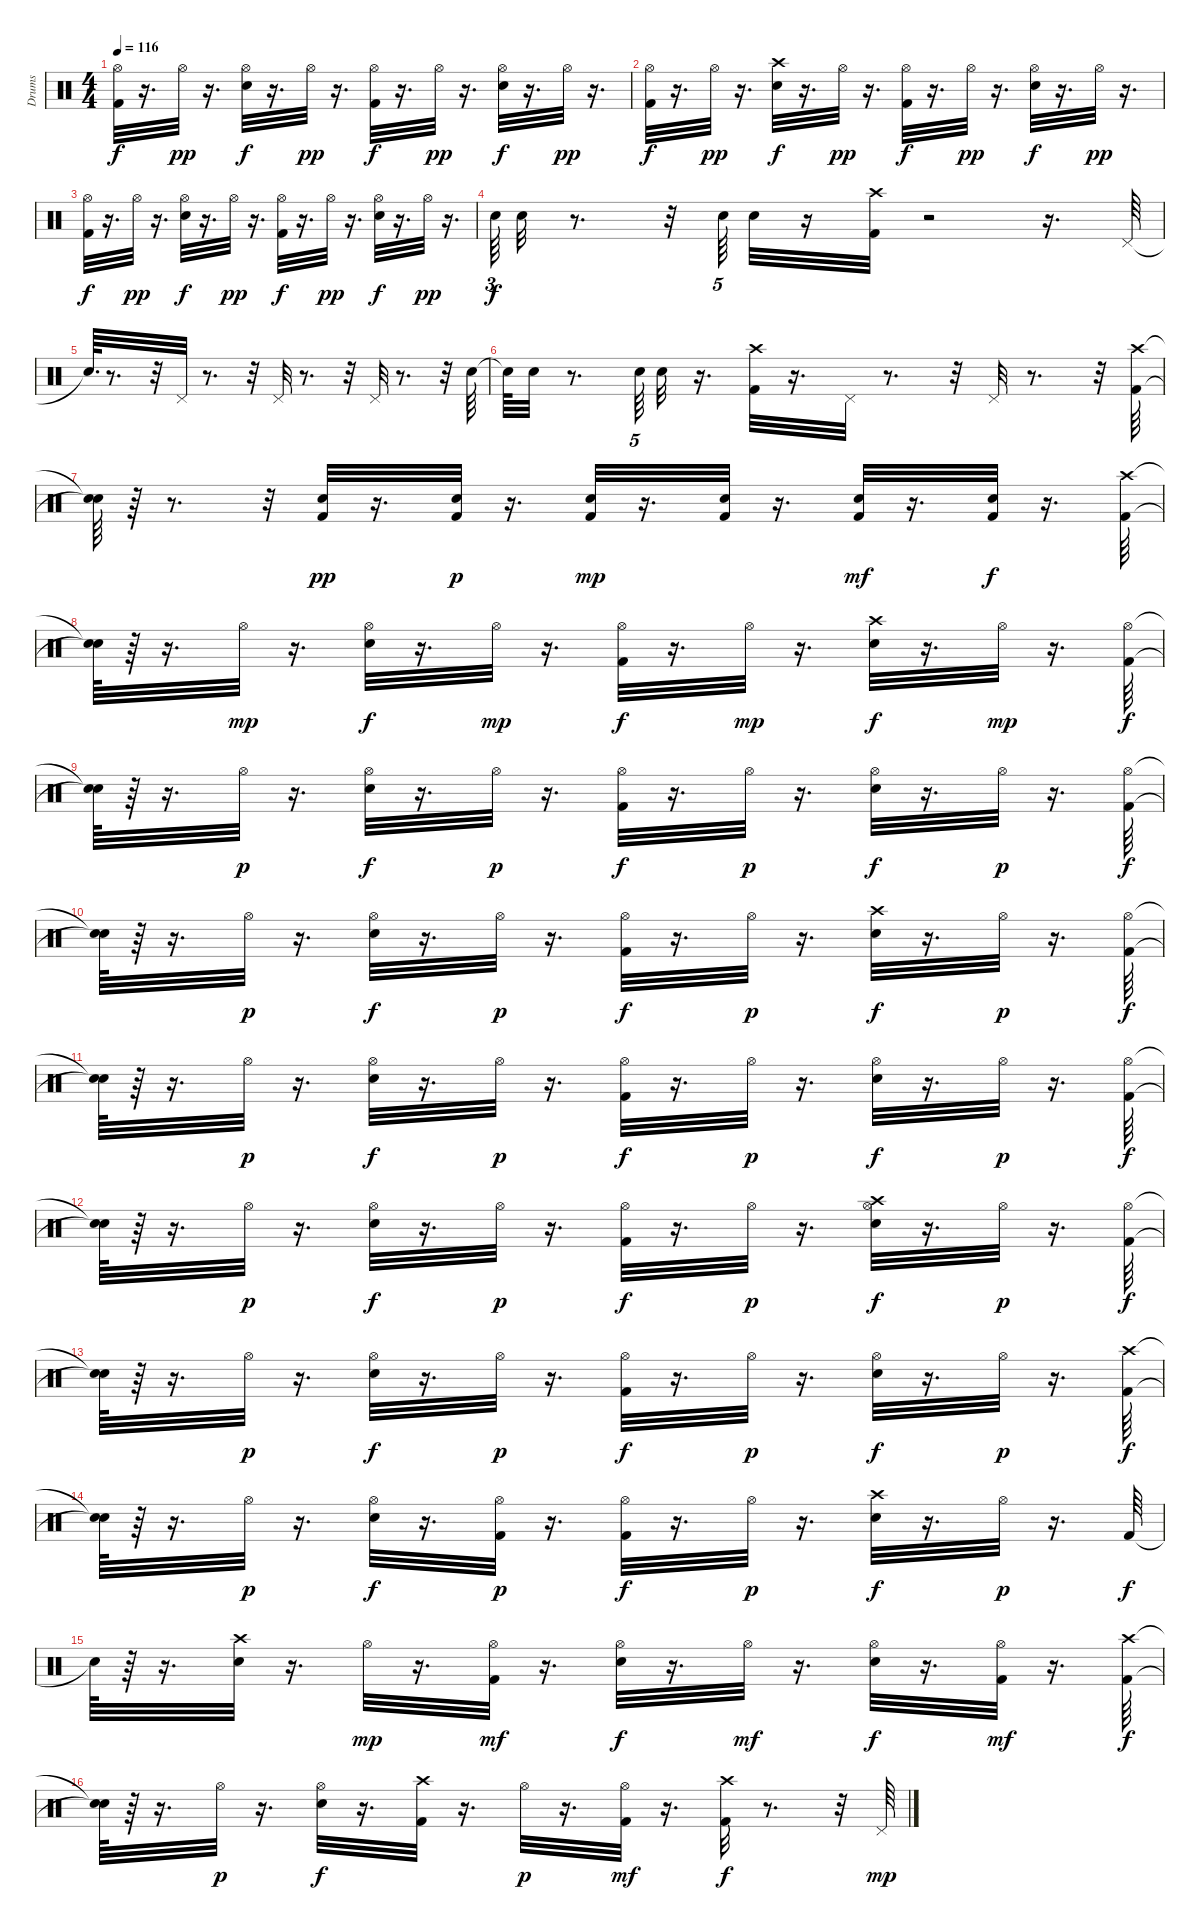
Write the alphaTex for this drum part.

\track ("Drums" "Drums") {instrument percussion}
\staff {score}
\articulation defaults
\ts (4 4)
\tempo 116
\clef neutral
\ks c
("Kick (hit) 2" "Hi-Hat (open)").32{dy f} r.16{d} "Hi-Hat (open)".32{dy pp} r.16{d} ("Electric Snare (hit)" "Hi-Hat (open)").32{dy f} r.16{d} "Hi-Hat (open)".32{dy pp} r.16{d} ("Kick (hit) 2" "Hi-Hat (open)").32{dy f} r.16{d} "Hi-Hat (open)".32{dy pp} r.16{d} ("Electric Snare (hit)" "Hi-Hat (open)").32{dy f} r.16{d} "Hi-Hat (open)".32{dy pp} r.16{d} |
("Kick (hit) 2" "Hi-Hat (open)").32{dy f} r.16{d} "Hi-Hat (open)".32{dy pp} r.16{d} ("Crash high (hit)" "Electric Snare (hit)").32{dy f} r.16{d} "Hi-Hat (open)".32{dy pp} r.16{d} ("Kick (hit) 2" "Hi-Hat (open)").32{dy f} r.16{d} "Hi-Hat (open)".32{dy pp} r.16{d} ("Hi-Hat (open)" "Electric Snare (hit)").32{dy f} r.16{d} "Hi-Hat (open)".32{dy pp} r.16{d} |
("Kick (hit) 2" "Hi-Hat (open)").32{dy f} r.16{d} "Hi-Hat (open)".32{dy pp} r.16{d} ("Electric Snare (hit)" "Hi-Hat (open)").32{dy f} r.16{d} "Hi-Hat (open)".32{dy pp} r.16{d} ("Kick (hit) 2" "Hi-Hat (open)").32{dy f} r.16{d} "Hi-Hat (open)".32{dy pp} r.16{d} ("Electric Snare (hit)" "Hi-Hat (open)").32{dy f} r.16{d} "Hi-Hat (open)".32{dy pp} r.16{d} |
"Electric Snare (hit)".64{tu (3 2) dy f} "Snare (hit) 2".32 r.8{d} r.32 "Electric Snare (hit)".64{tu (5 4)} "Snare (hit) 2".32 r.16 ("Kick (hit) 2" "Crash high (hit)").32 r.2 r.16{d} "Pedal Hi-Hat (hit)".64 |
"Snare (hit)"{t}.64{d} r.8{d} r.32 "Pedal Hi-Hat (hit)".32 r.8{d} r.32 "Pedal Hi-Hat (hit)".32 r.8{d} r.32 "Pedal Hi-Hat (hit)".32 r.8{d} r.32 "Snare (hit) 2".64 |
"Snare (hit)"{t}.64 "Electric Snare (hit)".32 r.8{d} "Snare (hit) 2".64{tu (5 4)} "Electric Snare (hit)".32 r.16{d} ("Crash high (hit)" "Kick (hit) 2").32 r.16{d} "Pedal Hi-Hat (hit)".32 r.8{d} r.32 "Pedal Hi-Hat (hit)".32 r.8{d} r.32 ("Crash high (hit)" "Kick (hit) 2").64 |
("Snare (hit)"{t} "Snare (hit)"{t}).64 r.64 r.8{d} r.32 ("Electric Snare (hit)" "Kick (hit) 2").32{dy pp} r.16{d} ("Electric Snare (hit)" "Kick (hit) 2").32{dy p} r.16{d} ("Electric Snare (hit)" "Kick (hit) 2").32{dy mp} r.16{d} ("Electric Snare (hit)" "Kick (hit) 2").32 r.16{d} ("Electric Snare (hit)" "Kick (hit) 2").32{dy mf} r.16{d} ("Electric Snare (hit)" "Kick (hit) 2").32{dy f} r.16{d} ("Crash high (hit)" "Kick (hit) 2").64 |
("Snare (hit)"{t} "Snare (hit)"{t}).64 r.64 r.16{d} "Hi-Hat (open)".32{dy mp} r.16{d} ("Hi-Hat (open)" "Electric Snare (hit)").32{dy f} r.16{d} "Hi-Hat (open)".32{dy mp} r.16{d} ("Kick (hit) 2" "Hi-Hat (open)").32{dy f} r.16{d} "Hi-Hat (open)".32{dy mp} r.16{d} ("Crash high (hit)" "Electric Snare (hit)").32{dy f} r.16{d} "Hi-Hat (open)".32{dy mp} r.16{d} ("Hi-Hat (open)" "Kick (hit) 2").64{dy f} |
("Snare (hit)"{t} "Snare (hit)"{t}).64 r.64 r.16{d} "Hi-Hat (open)".32{dy p} r.16{d} ("Hi-Hat (open)" "Electric Snare (hit)").32{dy f} r.16{d} "Hi-Hat (open)".32{dy p} r.16{d} ("Hi-Hat (open)" "Kick (hit) 2").32{dy f} r.16{d} "Hi-Hat (open)".32{dy p} r.16{d} ("Hi-Hat (open)" "Electric Snare (hit)").32{dy f} r.16{d} "Hi-Hat (open)".32{dy p} r.16{d} ("Hi-Hat (open)" "Kick (hit) 2").64{dy f} |
("Snare (hit)"{t} "Snare (hit)"{t}).64 r.64 r.16{d} "Hi-Hat (open)".32{dy p} r.16{d} ("Hi-Hat (open)" "Electric Snare (hit)").32{dy f} r.16{d} "Hi-Hat (open)".32{dy p} r.16{d} ("Hi-Hat (open)" "Kick (hit) 2").32{dy f} r.16{d} "Hi-Hat (open)".32{dy p} r.16{d} ("Crash high (hit)" "Electric Snare (hit)").32{dy f} r.16{d} "Hi-Hat (open)".32{dy p} r.16{d} ("Kick (hit) 2" "Hi-Hat (open)").64{dy f} |
("Snare (hit)"{t} "Snare (hit)"{t}).64 r.64 r.16{d} "Hi-Hat (open)".32{dy p} r.16{d} ("Electric Snare (hit)" "Hi-Hat (open)").32{dy f} r.16{d} "Hi-Hat (open)".32{dy p} r.16{d} ("Kick (hit) 2" "Hi-Hat (open)").32{dy f} r.16{d} "Hi-Hat (open)".32{dy p} r.16{d} ("Electric Snare (hit)" "Hi-Hat (open)").32{dy f} r.16{d} "Hi-Hat (open)".32{dy p} r.16{d} ("Kick (hit) 2" "Hi-Hat (open)").64{dy f} |
("Snare (hit)"{t} "Snare (hit)"{t}).64 r.64 r.16{d} "Hi-Hat (open)".32{dy p} r.16{d} ("Electric Snare (hit)" "Hi-Hat (open)").32{dy f} r.16{d} "Hi-Hat (open)".32{dy p} r.16{d} ("Kick (hit) 2" "Hi-Hat (open)").32{dy f} r.16{d} "Hi-Hat (open)".32{dy p} r.16{d} ("Electric Snare (hit)" "Hi-Hat (open)" "Crash high (hit)").32{dy f} r.16{d} "Hi-Hat (open)".32{dy p} r.16{d} ("Hi-Hat (open)" "Kick (hit) 2").64{dy f} |
("Snare (hit)"{t} "Snare (hit)"{t}).64 r.64 r.16{d} "Hi-Hat (open)".32{dy p} r.16{d} ("Hi-Hat (open)" "Electric Snare (hit)").32{dy f} r.16{d} "Hi-Hat (open)".32{dy p} r.16{d} ("Hi-Hat (open)" "Kick (hit) 2").32{dy f} r.16{d} "Hi-Hat (open)".32{dy p} r.16{d} ("Hi-Hat (open)" "Electric Snare (hit)").32{dy f} r.16{d} "Hi-Hat (open)".32{dy p} r.16{d} ("Crash high (hit)" "Kick (hit) 2").64{dy f} |
("Snare (hit)"{t} "Snare (hit)"{t}).64 r.64 r.16{d} "Hi-Hat (open)".32{dy p} r.16{d} ("Hi-Hat (open)" "Electric Snare (hit)").32{dy f} r.16{d} ("Kick (hit) 2" "Hi-Hat (open)").32{dy p} r.16{d} ("Hi-Hat (open)" "Kick (hit) 2").32{dy f} r.16{d} "Hi-Hat (open)".32{dy p} r.16{d} ("Crash high (hit)" "Electric Snare (hit)").32{dy f} r.16{d} "Hi-Hat (open)".32{dy p} r.16{d} "Kick (hit) 2".64{dy f} |
"Snare (hit)"{t}.64 r.64 r.16{d} ("Crash high (hit)" "Electric Snare (hit)").32 r.16{d} "Hi-Hat (open)".32{dy mp} r.16{d} ("Hi-Hat (open)" "Kick (hit) 2").32{dy mf} r.16{d} ("Hi-Hat (open)" "Electric Snare (hit)").32{dy f} r.16{d} "Hi-Hat (open)".32{dy mf} r.16{d} ("Hi-Hat (open)" "Electric Snare (hit)").32{dy f} r.16{d} ("Hi-Hat (open)" "Kick (hit) 2").32{dy mf} r.16{d} ("Crash high (hit)" "Kick (hit) 2").64{dy f} |
("Snare (hit)"{t} "Snare (hit)"{t}).64 r.64 r.16{d} "Hi-Hat (open)".32{dy p} r.16{d} ("Hi-Hat (open)" "Electric Snare (hit)").32{dy f} r.16{d} ("Crash high (hit)" "Kick (hit) 2").32 r.16{d} "Hi-Hat (open)".32{dy p} r.16{d} ("Hi-Hat (open)" "Kick (hit) 2").32{dy mf} r.16{d} ("Crash high (hit)" "Kick (hit) 2").32{dy f} r.8{d} r.32 "Pedal Hi-Hat (hit)".64{dy mp}
